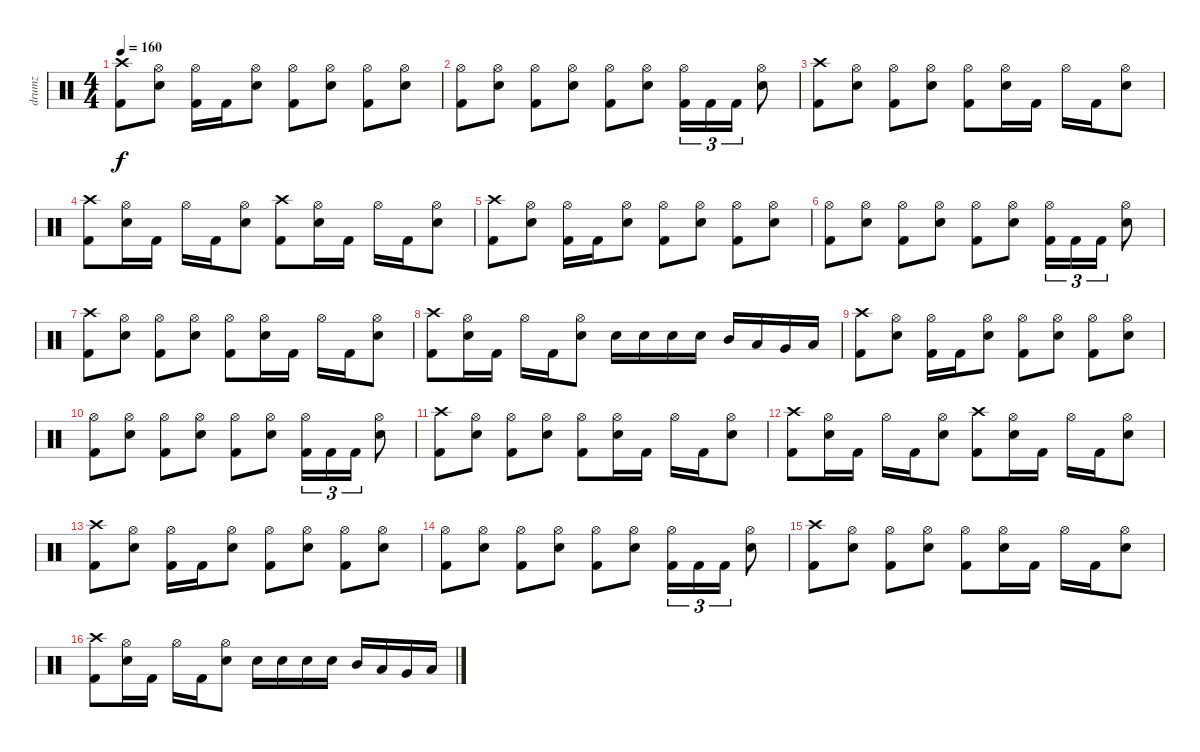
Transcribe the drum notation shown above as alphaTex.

\track ("drumz" "drumz") {instrument percussion}
\staff {score}
\articulation defaults
\ts (4 4)
\tempo 160
\clef neutral
\ks c
("Crash high (hit)" "Kick (hit) 2").8{dy f} ("Hi-Hat (open)" "Electric Snare (hit)").8 ("Hi-Hat (open)" "Kick (hit) 2").16 "Kick (hit) 2".16 ("Hi-Hat (open)" "Electric Snare (hit)").8 ("Hi-Hat (open)" "Kick (hit) 2").8 ("Hi-Hat (open)" "Electric Snare (hit)").8 ("Hi-Hat (open)" "Kick (hit) 2").8 ("Hi-Hat (open)" "Electric Snare (hit)").8 |
("Hi-Hat (open)" "Kick (hit) 2").8 ("Hi-Hat (open)" "Electric Snare (hit)").8 ("Hi-Hat (open)" "Kick (hit) 2").8 ("Hi-Hat (open)" "Electric Snare (hit)").8 ("Hi-Hat (open)" "Kick (hit) 2").8 ("Hi-Hat (open)" "Electric Snare (hit)").8 ("Hi-Hat (open)" "Kick (hit) 2").16{tu (3 2)} "Kick (hit) 2".16{tu (3 2)} "Kick (hit) 2".16{tu (3 2)} ("Hi-Hat (open)" "Electric Snare (hit)").8 |
("Crash high (hit)" "Kick (hit) 2").8 ("Hi-Hat (open)" "Electric Snare (hit)").8 ("Hi-Hat (open)" "Kick (hit) 2").8 ("Hi-Hat (open)" "Electric Snare (hit)").8 ("Hi-Hat (open)" "Kick (hit) 2").8 ("Hi-Hat (open)" "Electric Snare (hit)").16 "Kick (hit) 2".16 "Hi-Hat (open)".16 "Kick (hit) 2".16 ("Hi-Hat (open)" "Electric Snare (hit)").8 |
("Crash high (hit)" "Kick (hit) 2").8 ("Hi-Hat (open)" "Electric Snare (hit)").16 "Kick (hit) 2".16 "Hi-Hat (open)".16 "Kick (hit) 2".16 ("Hi-Hat (open)" "Electric Snare (hit)").8 ("Crash high (hit)" "Kick (hit) 2").8 ("Hi-Hat (open)" "Electric Snare (hit)").16 "Kick (hit) 2".16 "Hi-Hat (open)".16 "Kick (hit) 2".16 ("Hi-Hat (open)" "Electric Snare (hit)").8 |
("Crash high (hit)" "Kick (hit) 2").8 ("Hi-Hat (open)" "Electric Snare (hit)").8 ("Hi-Hat (open)" "Kick (hit) 2").16 "Kick (hit) 2".16 ("Hi-Hat (open)" "Electric Snare (hit)").8 ("Hi-Hat (open)" "Kick (hit) 2").8 ("Hi-Hat (open)" "Electric Snare (hit)").8 ("Hi-Hat (open)" "Kick (hit) 2").8 ("Hi-Hat (open)" "Electric Snare (hit)").8 |
("Hi-Hat (open)" "Kick (hit) 2").8 ("Hi-Hat (open)" "Electric Snare (hit)").8 ("Hi-Hat (open)" "Kick (hit) 2").8 ("Hi-Hat (open)" "Electric Snare (hit)").8 ("Hi-Hat (open)" "Kick (hit) 2").8 ("Hi-Hat (open)" "Electric Snare (hit)").8 ("Hi-Hat (open)" "Kick (hit) 2").16{tu (3 2)} "Kick (hit) 2".16{tu (3 2)} "Kick (hit) 2".16{tu (3 2)} ("Hi-Hat (open)" "Electric Snare (hit)").8 |
("Crash high (hit)" "Kick (hit) 2").8 ("Hi-Hat (open)" "Electric Snare (hit)").8 ("Hi-Hat (open)" "Kick (hit) 2").8 ("Hi-Hat (open)" "Electric Snare (hit)").8 ("Hi-Hat (open)" "Kick (hit) 2").8 ("Hi-Hat (open)" "Electric Snare (hit)").16 "Kick (hit) 2".16 "Hi-Hat (open)".16 "Kick (hit) 2".16 ("Hi-Hat (open)" "Electric Snare (hit)").8 |
("Crash high (hit)" "Kick (hit) 2").8 ("Hi-Hat (open)" "Electric Snare (hit)").16 "Kick (hit) 2".16 "Hi-Hat (open)".16 "Kick (hit) 2".16 ("Hi-Hat (open)" "Electric Snare (hit)").8 "Electric Snare (hit)".16 "Electric Snare (hit)".16 "Electric Snare (hit)".16 "Electric Snare (hit)".16 "Mid Tom (hit)".16 "Low Tom (hit)".16 "Very Low Tom (hit)".16 "Low Floor Tom (hit)".16 |
("Crash high (hit)" "Kick (hit) 2").8 ("Hi-Hat (open)" "Electric Snare (hit)").8 ("Hi-Hat (open)" "Kick (hit) 2").16 "Kick (hit) 2".16 ("Hi-Hat (open)" "Electric Snare (hit)").8 ("Hi-Hat (open)" "Kick (hit) 2").8 ("Hi-Hat (open)" "Electric Snare (hit)").8 ("Hi-Hat (open)" "Kick (hit) 2").8 ("Hi-Hat (open)" "Electric Snare (hit)").8 |
("Hi-Hat (open)" "Kick (hit) 2").8 ("Hi-Hat (open)" "Electric Snare (hit)").8 ("Hi-Hat (open)" "Kick (hit) 2").8 ("Hi-Hat (open)" "Electric Snare (hit)").8 ("Hi-Hat (open)" "Kick (hit) 2").8 ("Hi-Hat (open)" "Electric Snare (hit)").8 ("Hi-Hat (open)" "Kick (hit) 2").16{tu (3 2)} "Kick (hit) 2".16{tu (3 2)} "Kick (hit) 2".16{tu (3 2)} ("Hi-Hat (open)" "Electric Snare (hit)").8 |
("Crash high (hit)" "Kick (hit) 2").8 ("Hi-Hat (open)" "Electric Snare (hit)").8 ("Hi-Hat (open)" "Kick (hit) 2").8 ("Hi-Hat (open)" "Electric Snare (hit)").8 ("Hi-Hat (open)" "Kick (hit) 2").8 ("Hi-Hat (open)" "Electric Snare (hit)").16 "Kick (hit) 2".16 "Hi-Hat (open)".16 "Kick (hit) 2".16 ("Hi-Hat (open)" "Electric Snare (hit)").8 |
("Crash high (hit)" "Kick (hit) 2").8 ("Hi-Hat (open)" "Electric Snare (hit)").16 "Kick (hit) 2".16 "Hi-Hat (open)".16 "Kick (hit) 2".16 ("Hi-Hat (open)" "Electric Snare (hit)").8 ("Crash high (hit)" "Kick (hit) 2").8 ("Hi-Hat (open)" "Electric Snare (hit)").16 "Kick (hit) 2".16 "Hi-Hat (open)".16 "Kick (hit) 2".16 ("Hi-Hat (open)" "Electric Snare (hit)").8 |
("Crash high (hit)" "Kick (hit) 2").8 ("Hi-Hat (open)" "Electric Snare (hit)").8 ("Hi-Hat (open)" "Kick (hit) 2").16 "Kick (hit) 2".16 ("Hi-Hat (open)" "Electric Snare (hit)").8 ("Hi-Hat (open)" "Kick (hit) 2").8 ("Hi-Hat (open)" "Electric Snare (hit)").8 ("Hi-Hat (open)" "Kick (hit) 2").8 ("Hi-Hat (open)" "Electric Snare (hit)").8 |
("Hi-Hat (open)" "Kick (hit) 2").8 ("Hi-Hat (open)" "Electric Snare (hit)").8 ("Hi-Hat (open)" "Kick (hit) 2").8 ("Hi-Hat (open)" "Electric Snare (hit)").8 ("Hi-Hat (open)" "Kick (hit) 2").8 ("Hi-Hat (open)" "Electric Snare (hit)").8 ("Hi-Hat (open)" "Kick (hit) 2").16{tu (3 2)} "Kick (hit) 2".16{tu (3 2)} "Kick (hit) 2".16{tu (3 2)} ("Hi-Hat (open)" "Electric Snare (hit)").8 |
("Crash high (hit)" "Kick (hit) 2").8 ("Hi-Hat (open)" "Electric Snare (hit)").8 ("Hi-Hat (open)" "Kick (hit) 2").8 ("Hi-Hat (open)" "Electric Snare (hit)").8 ("Hi-Hat (open)" "Kick (hit) 2").8 ("Hi-Hat (open)" "Electric Snare (hit)").16 "Kick (hit) 2".16 "Hi-Hat (open)".16 "Kick (hit) 2".16 ("Hi-Hat (open)" "Electric Snare (hit)").8 |
("Crash high (hit)" "Kick (hit) 2").8 ("Hi-Hat (open)" "Electric Snare (hit)").16 "Kick (hit) 2".16 "Hi-Hat (open)".16 "Kick (hit) 2".16 ("Hi-Hat (open)" "Electric Snare (hit)").8 "Electric Snare (hit)".16 "Electric Snare (hit)".16 "Electric Snare (hit)".16 "Electric Snare (hit)".16 "Mid Tom (hit)".16 "Low Tom (hit)".16 "Very Low Tom (hit)".16 "Low Floor Tom (hit)".16
